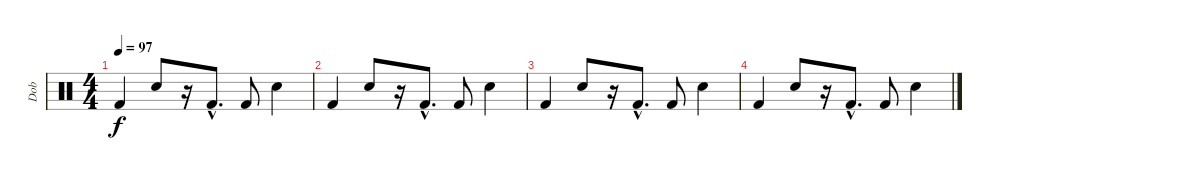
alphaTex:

\track ("Dob" "Dob") {instrument percussion}
\staff {score}
\articulation defaults
\ts (4 4)
\tempo 97
\clef neutral
\ks c "Kick (hit) 2".4{dy f} "Snare (hit) 2".8
r.16 "Kick (hit) 2"{hac}.8{d} "Kick (hit) 2".8 "Snare (hit) 2".4 |
"Kick (hit) 2".4 "Snare (hit) 2".8 r.16 "Kick (hit) 2"{hac}.8{d} "Kick (hit) 2".8 "Snare (hit) 2".4 |
"Kick (hit) 2".4 "Snare (hit) 2".8 r.16 "Kick (hit) 2"{hac}.8{d} "Kick (hit) 2".8 "Snare (hit) 2".4 |
"Kick (hit) 2".4 "Snare (hit) 2".8 r.16 "Kick (hit) 2"{hac}.8{d} "Kick (hit) 2".8 "Snare (hit) 2".4
